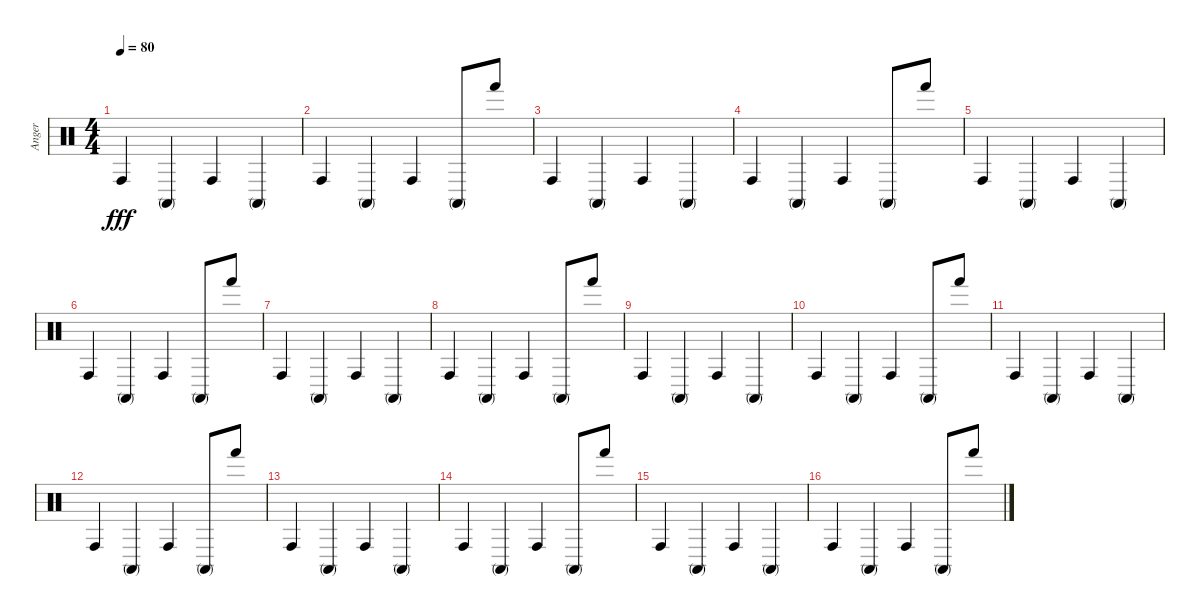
\track ("Anger" "Anger") {instrument percussion}
\staff {score}
\articulation defaults
\ts (4 4)
\tempo 80
\clef neutral
\ks c "Conga high (hit)".4{dy fff} "Conga high (mute)".4 "Conga high (hit)".4 "Conga high (mute)".4
|
"Conga high (hit)".4 "Conga high (mute)".4 "Conga high (hit)".4 "Conga high (mute)".8 "Hand (hit)".8 |
"Conga high (hit)".4 "Conga high (mute)".4 "Conga high (hit)".4 "Conga high (mute)".4 |
"Conga high (hit)".4 "Conga high (mute)".4 "Conga high (hit)".4 "Conga high (mute)".8 "Hand (hit)".8 |
"Conga high (hit)".4 "Conga high (mute)".4 "Conga high (hit)".4 "Conga high (mute)".4 |
"Conga high (hit)".4 "Conga high (mute)".4 "Conga high (hit)".4 "Conga high (mute)".8 "Hand (hit)".8 |
"Conga high (hit)".4 "Conga high (mute)".4 "Conga high (hit)".4 "Conga high (mute)".4 |
"Conga high (hit)".4 "Conga high (mute)".4 "Conga high (hit)".4 "Conga high (mute)".8 "Hand (hit)".8 |
"Conga high (hit)".4 "Conga high (mute)".4 "Conga high (hit)".4 "Conga high (mute)".4 |
"Conga high (hit)".4 "Conga high (mute)".4 "Conga high (hit)".4 "Conga high (mute)".8 "Hand (hit)".8 |
"Conga high (hit)".4 "Conga high (mute)".4 "Conga high (hit)".4 "Conga high (mute)".4 |
"Conga high (hit)".4 "Conga high (mute)".4 "Conga high (hit)".4 "Conga high (mute)".8 "Hand (hit)".8 |
"Conga high (hit)".4 "Conga high (mute)".4 "Conga high (hit)".4 "Conga high (mute)".4 |
"Conga high (hit)".4 "Conga high (mute)".4 "Conga high (hit)".4 "Conga high (mute)".8 "Hand (hit)".8 |
"Conga high (hit)".4 "Conga high (mute)".4 "Conga high (hit)".4 "Conga high (mute)".4 |
"Conga high (hit)".4 "Conga high (mute)".4 "Conga high (hit)".4 "Conga high (mute)".8 "Hand (hit)".8
